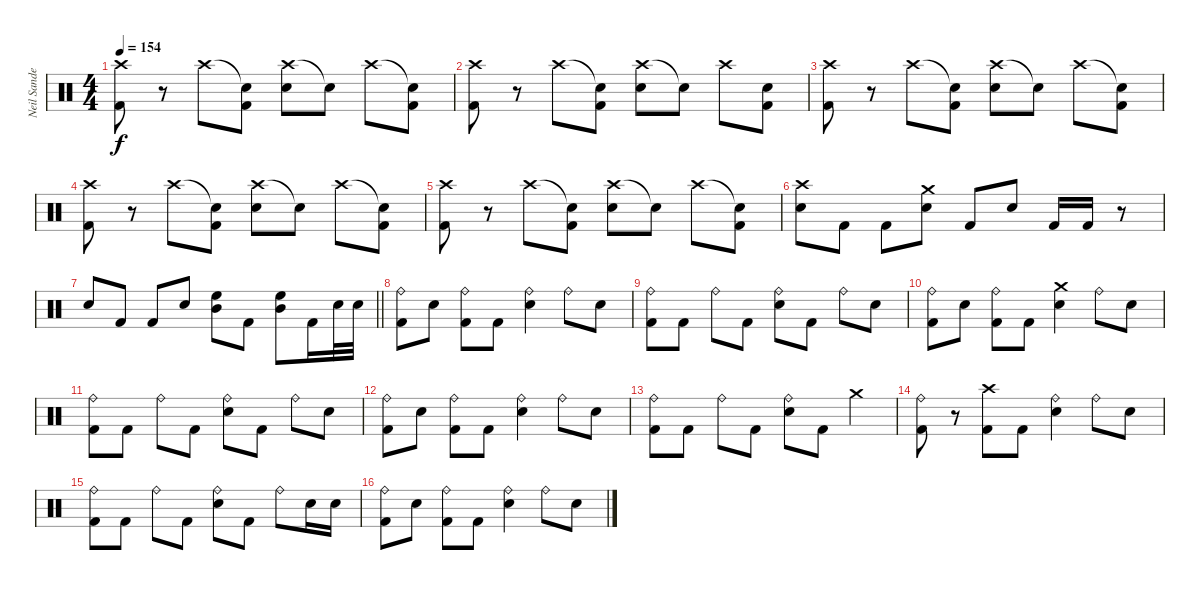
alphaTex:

\track ("Neil Sanderson" "Neil Sande") {instrument percussion}
\staff {score}
\articulation defaults
\ts (4 4)
\tempo 154
\clef neutral
\ks c
("Crash high (hit)" "Kick (hit) 2").8{dy f} r.8 "Crash high (hit)".8 ("Snare (hit)"{t} "Kick (hit) 2").8 ("Crash high (hit)" "Snare (hit) 2").8 "Snare (hit)"{t}.8 "Crash high (hit)".8 ("Snare (hit)"{t} "Kick (hit) 2").8 |
("Crash high (hit)" "Kick (hit) 2").8 r.8 "Crash high (hit)".8 ("Snare (hit)"{t} "Kick (hit) 2").8 ("Crash high (hit)" "Snare (hit) 2").8 "Snare (hit)"{t}.8 "Crash high (hit)".8 ("Snare (hit) 2" "Kick (hit) 2").8 |
("Crash high (hit)" "Kick (hit) 2").8 r.8 "Crash high (hit)".8 ("Snare (hit)"{t} "Kick (hit) 2").8 ("Crash high (hit)" "Snare (hit) 2").8 "Snare (hit)"{t}.8 "Crash high (hit)".8 ("Snare (hit)"{t} "Kick (hit) 2").8 |
("Crash high (hit)" "Kick (hit) 2").8 r.8 "Crash high (hit)".8 ("Snare (hit)"{t} "Kick (hit) 2").8 ("Crash high (hit)" "Snare (hit) 2").8 "Snare (hit)"{t}.8 "Crash high (hit)".8 ("Snare (hit)"{t} "Kick (hit) 2").8 |
("Crash high (hit)" "Kick (hit) 2").8 r.8 "Crash high (hit)".8 ("Snare (hit)"{t} "Kick (hit) 2").8 ("Crash high (hit)" "Snare (hit) 2").8 "Snare (hit)"{t}.8 "Crash high (hit)".8 ("Snare (hit)"{t} "Kick (hit) 2").8 |
("Crash high (hit)" "Snare (hit) 2").8 "Kick (hit) 2".8 "Kick (hit) 2".8 ("Crash medium (hit)" "Snare (hit) 2").8 "Kick (hit) 2".8 "Snare (hit) 2".8 "Kick (hit) 2".16 "Kick (hit) 2".16 r.8 |
\barLineRight lightlight "Snare (hit) 2".8 "Kick (hit) 2".8 "Kick (hit) 2".8 "Snare (hit) 2".8
("Mid Tom (hit)" "High Floor Tom (hit)").8 "Kick (hit) 2".8 ("Mid Tom (hit)" "High Floor Tom (hit)").8 "Kick (hit) 2".16 "Snare (hit) 2".32 "Snare (hit) 2".32 |
\section ("" "")
("Ride (bell)" "Kick (hit) 2").8 "Snare (hit) 2".8 ("Ride (bell)" "Kick (hit) 2").8 "Kick (hit) 2".8 ("Ride (bell)" "Snare (hit) 2").4 "Ride (bell)".8 "Snare (hit) 2".8 |
("Ride (bell)" "Kick (hit) 2").8 "Kick (hit) 2".8 "Ride (bell)".8 "Kick (hit) 2".8 ("Ride (bell)" "Snare (hit) 2").8 "Kick (hit) 2".8 "Ride (bell)".8 "Snare (hit) 2".8 |
("Ride (bell)" "Kick (hit) 2").8 "Snare (hit) 2".8 ("Ride (bell)" "Kick (hit) 2").8 "Kick (hit) 2".8 ("Crash medium (hit)" "Snare (hit) 2").4 "Ride (bell)".8 "Snare (hit) 2".8 |
("Ride (bell)" "Kick (hit) 2").8 "Kick (hit) 2".8 "Ride (bell)".8 "Kick (hit) 2".8 ("Ride (bell)" "Snare (hit) 2").8 "Kick (hit) 2".8 "Ride (bell)".8 "Snare (hit) 2".8 |
("Ride (bell)" "Kick (hit) 2").8 "Snare (hit) 2".8 ("Ride (bell)" "Kick (hit) 2").8 "Kick (hit) 2".8 ("Ride (bell)" "Snare (hit) 2").4 "Ride (bell)".8 "Snare (hit) 2".8 |
("Ride (bell)" "Kick (hit) 2").8 "Kick (hit) 2".8 "Ride (bell)".8 "Kick (hit) 2".8 ("Ride (bell)" "Snare (hit) 2").8 "Kick (hit) 2".8 "Crash medium (hit)".4 |
("Ride (bell)" "Kick (hit) 2").8 r.8 ("Crash high (hit)" "Kick (hit) 2").8 "Kick (hit) 2".8 ("Ride (bell)" "Snare (hit) 2").4 "Ride (bell)".8 "Snare (hit) 2".8 |
("Ride (bell)" "Kick (hit) 2").8 "Kick (hit) 2".8 "Ride (bell)".8 "Kick (hit) 2".8 ("Ride (bell)" "Snare (hit) 2").8 "Kick (hit) 2".8 "Ride (bell)".8 "Snare (hit) 2".16 "Snare (hit) 2".16 |
("Ride (bell)" "Kick (hit) 2").8 "Snare (hit) 2".8 ("Ride (bell)" "Kick (hit) 2").8 "Kick (hit) 2".8 ("Ride (bell)" "Snare (hit) 2").4 "Ride (bell)".8 "Snare (hit) 2".8
